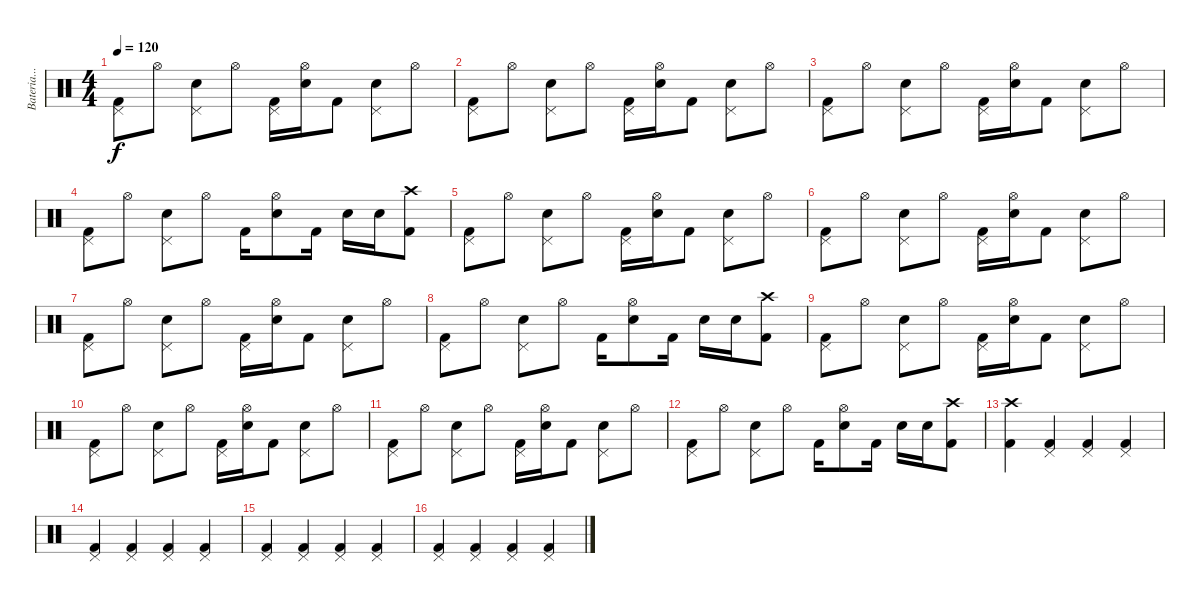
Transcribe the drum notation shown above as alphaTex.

\track ("Bateria...xD" "Bateria...") {instrument percussion}
\staff {score}
\articulation defaults
\ts (4 4)
\tempo 120
\clef neutral
\ks c
("Pedal Hi-Hat (hit)" "Kick (hit) 2").8{dy f} "Hi-Hat (open)".8 ("Pedal Hi-Hat (hit)" "Electric Snare (hit)").8 "Hi-Hat (open)".8 ("Pedal Hi-Hat (hit)" "Kick (hit) 2").16 ("Hi-Hat (open)" "Electric Snare (hit)").16 "Kick (hit) 2".8 ("Pedal Hi-Hat (hit)" "Electric Snare (hit)").8 "Hi-Hat (open)".8 |
("Pedal Hi-Hat (hit)" "Kick (hit) 2").8 "Hi-Hat (open)".8 ("Pedal Hi-Hat (hit)" "Electric Snare (hit)").8 "Hi-Hat (open)".8 ("Pedal Hi-Hat (hit)" "Kick (hit) 2").16 ("Hi-Hat (open)" "Electric Snare (hit)").16 "Kick (hit) 2".8 ("Pedal Hi-Hat (hit)" "Electric Snare (hit)").8 "Hi-Hat (open)".8 |
("Pedal Hi-Hat (hit)" "Kick (hit) 2").8 "Hi-Hat (open)".8 ("Pedal Hi-Hat (hit)" "Electric Snare (hit)").8 "Hi-Hat (open)".8 ("Pedal Hi-Hat (hit)" "Kick (hit) 2").16 ("Hi-Hat (open)" "Electric Snare (hit)").16 "Kick (hit) 2".8 ("Pedal Hi-Hat (hit)" "Electric Snare (hit)").8 "Hi-Hat (open)".8 |
("Pedal Hi-Hat (hit)" "Kick (hit) 2").8 "Hi-Hat (open)".8 ("Pedal Hi-Hat (hit)" "Electric Snare (hit)").8 "Hi-Hat (open)".8 "Kick (hit) 2".16 ("Hi-Hat (open)" "Electric Snare (hit)").8 "Kick (hit) 2".16 "Electric Snare (hit)".16 "Electric Snare (hit)".16 ("Crash high (hit)" "Kick (hit) 2").8 |
("Pedal Hi-Hat (hit)" "Kick (hit) 2").8 "Hi-Hat (open)".8 ("Pedal Hi-Hat (hit)" "Electric Snare (hit)").8 "Hi-Hat (open)".8 ("Pedal Hi-Hat (hit)" "Kick (hit) 2").16 ("Hi-Hat (open)" "Electric Snare (hit)").16 "Kick (hit) 2".8 ("Pedal Hi-Hat (hit)" "Electric Snare (hit)").8 "Hi-Hat (open)".8 |
("Pedal Hi-Hat (hit)" "Kick (hit) 2").8 "Hi-Hat (open)".8 ("Pedal Hi-Hat (hit)" "Electric Snare (hit)").8 "Hi-Hat (open)".8 ("Pedal Hi-Hat (hit)" "Kick (hit) 2").16 ("Hi-Hat (open)" "Electric Snare (hit)").16 "Kick (hit) 2".8 ("Pedal Hi-Hat (hit)" "Electric Snare (hit)").8 "Hi-Hat (open)".8 |
("Pedal Hi-Hat (hit)" "Kick (hit) 2").8 "Hi-Hat (open)".8 ("Pedal Hi-Hat (hit)" "Electric Snare (hit)").8 "Hi-Hat (open)".8 ("Pedal Hi-Hat (hit)" "Kick (hit) 2").16 ("Hi-Hat (open)" "Electric Snare (hit)").16 "Kick (hit) 2".8 ("Pedal Hi-Hat (hit)" "Electric Snare (hit)").8 "Hi-Hat (open)".8 |
("Pedal Hi-Hat (hit)" "Kick (hit) 2").8 "Hi-Hat (open)".8 ("Pedal Hi-Hat (hit)" "Electric Snare (hit)").8 "Hi-Hat (open)".8 "Kick (hit) 2".16 ("Hi-Hat (open)" "Electric Snare (hit)").8 "Kick (hit) 2".16 "Electric Snare (hit)".16 "Electric Snare (hit)".16 ("Crash high (hit)" "Kick (hit) 2").8 |
("Pedal Hi-Hat (hit)" "Kick (hit) 2").8 "Hi-Hat (open)".8 ("Pedal Hi-Hat (hit)" "Electric Snare (hit)").8 "Hi-Hat (open)".8 ("Pedal Hi-Hat (hit)" "Kick (hit) 2").16 ("Hi-Hat (open)" "Electric Snare (hit)").16 "Kick (hit) 2".8 ("Pedal Hi-Hat (hit)" "Electric Snare (hit)").8 "Hi-Hat (open)".8 |
("Pedal Hi-Hat (hit)" "Kick (hit) 2").8 "Hi-Hat (open)".8 ("Pedal Hi-Hat (hit)" "Electric Snare (hit)").8 "Hi-Hat (open)".8 ("Pedal Hi-Hat (hit)" "Kick (hit) 2").16 ("Hi-Hat (open)" "Electric Snare (hit)").16 "Kick (hit) 2".8 ("Pedal Hi-Hat (hit)" "Electric Snare (hit)").8 "Hi-Hat (open)".8 |
("Pedal Hi-Hat (hit)" "Kick (hit) 2").8 "Hi-Hat (open)".8 ("Pedal Hi-Hat (hit)" "Electric Snare (hit)").8 "Hi-Hat (open)".8 ("Pedal Hi-Hat (hit)" "Kick (hit) 2").16 ("Hi-Hat (open)" "Electric Snare (hit)").16 "Kick (hit) 2".8 ("Pedal Hi-Hat (hit)" "Electric Snare (hit)").8 "Hi-Hat (open)".8 |
("Pedal Hi-Hat (hit)" "Kick (hit) 2").8 "Hi-Hat (open)".8 ("Pedal Hi-Hat (hit)" "Electric Snare (hit)").8 "Hi-Hat (open)".8 "Kick (hit) 2".16 ("Hi-Hat (open)" "Electric Snare (hit)").8 "Kick (hit) 2".16 "Electric Snare (hit)".16 "Electric Snare (hit)".16 ("Crash high (hit)" "Kick (hit) 2").8 |
("Crash high (hit)" "Kick (hit) 2").4 ("Pedal Hi-Hat (hit)" "Kick (hit) 2").4 ("Pedal Hi-Hat (hit)" "Kick (hit) 2").4 ("Pedal Hi-Hat (hit)" "Kick (hit) 2").4 |
("Pedal Hi-Hat (hit)" "Kick (hit) 2").4 ("Pedal Hi-Hat (hit)" "Kick (hit) 2").4 ("Pedal Hi-Hat (hit)" "Kick (hit) 2").4 ("Pedal Hi-Hat (hit)" "Kick (hit) 2").4 |
("Pedal Hi-Hat (hit)" "Kick (hit) 2").4 ("Pedal Hi-Hat (hit)" "Kick (hit) 2").4 ("Pedal Hi-Hat (hit)" "Kick (hit) 2").4 ("Pedal Hi-Hat (hit)" "Kick (hit) 2").4 |
("Pedal Hi-Hat (hit)" "Kick (hit) 2").4 ("Pedal Hi-Hat (hit)" "Kick (hit) 2").4 ("Pedal Hi-Hat (hit)" "Kick (hit) 2").4 ("Pedal Hi-Hat (hit)" "Kick (hit) 2").4
